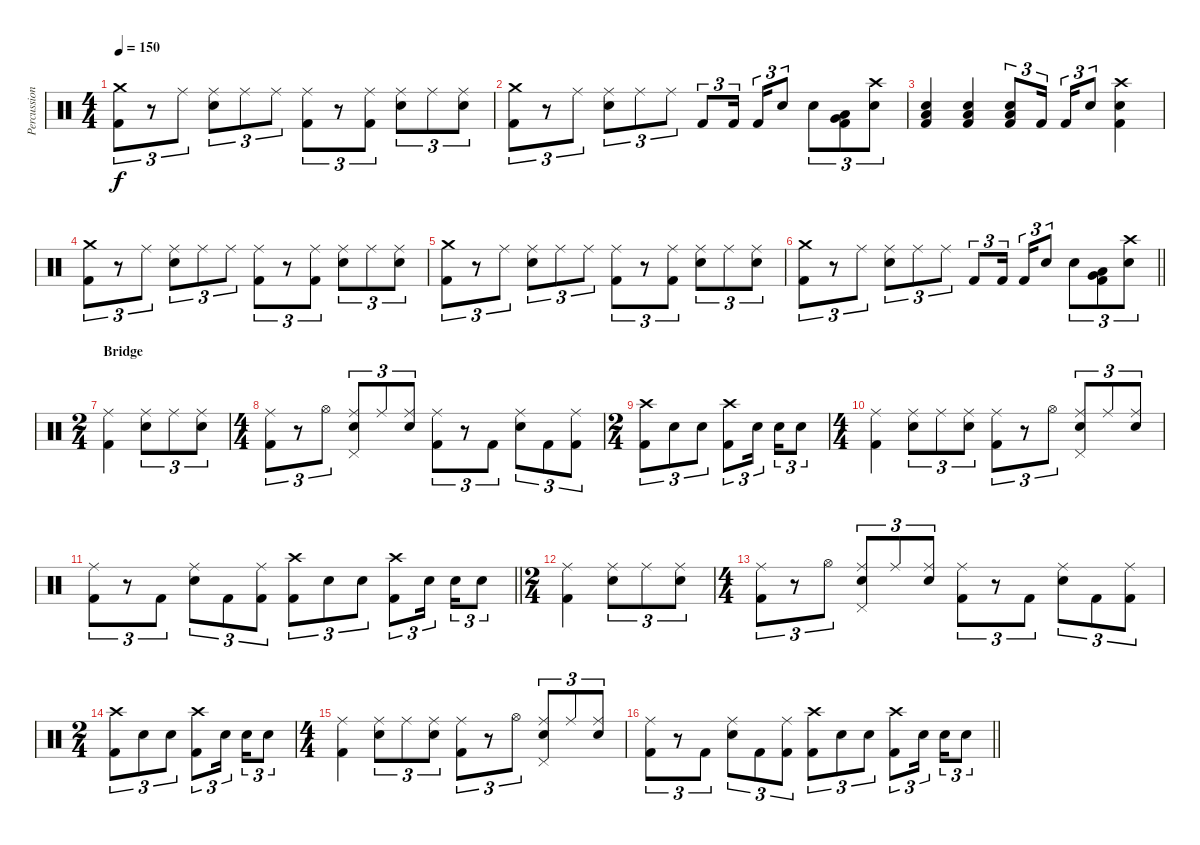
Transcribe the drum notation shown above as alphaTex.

\track ("Percussion" "Percussion") {instrument percussion}
\staff {score}
\articulation defaults
\ts (4 4)
\tempo 150
\clef neutral
\ks c
("Crash medium (hit)" "Kick (hit) 2").8{tu (3 2) dy f} r.8{tu (3 2)} "Ride (middle)".8{tu (3 2)} ("Ride (middle)" "Electric Snare (hit)").8{tu (3 2)} "Ride (middle)".8{tu (3 2)} "Ride (middle)".8{tu (3 2)} ("Ride (middle)" "Kick (hit) 2").8{tu (3 2)} r.8{tu (3 2)} ("Ride (middle)" "Kick (hit) 2").8{tu (3 2)} ("Ride (middle)" "Electric Snare (hit)").8{tu (3 2)} "Ride (middle)".8{tu (3 2)} ("Ride (middle)" "Electric Snare (hit)").8{tu (3 2)} |
("Crash medium (hit)" "Kick (hit) 2").8{tu (3 2)} r.8{tu (3 2)} "Ride (middle)".8{tu (3 2)} ("Ride (middle)" "Electric Snare (hit)").8{tu (3 2)} "Ride (middle)".8{tu (3 2)} "Ride (middle)".8{tu (3 2)} "Kick (hit) 2".8{tu (3 2)} "Kick (hit) 2".16{tu (3 2) beam splitsecondary} "Kick (hit) 2".16{tu (3 2)} "Electric Snare (hit)".8{tu (3 2)} "Electric Snare (hit)".8{tu (3 2)} ("Very Low Tom (hit)" "Low Floor Tom (hit)" "Kick (hit) 2").8{tu (3 2)} ("Crash high (hit)" "Electric Snare (hit)").8{tu (3 2)} |
("Electric Snare (hit)" "Low Floor Tom (hit)" "Kick (hit) 2").4 ("Electric Snare (hit)" "Low Floor Tom (hit)" "Kick (hit) 2").4 ("Electric Snare (hit)" "Low Floor Tom (hit)" "Kick (hit) 2").8{tu (3 2)} "Kick (hit) 2".16{tu (3 2) beam splitsecondary} "Kick (hit) 2".16{tu (3 2)} "Electric Snare (hit)".8{tu (3 2)} ("Crash high (hit)" "Electric Snare (hit)" "Kick (hit) 2").4 |
("Crash medium (hit)" "Kick (hit) 2").8{tu (3 2)} r.8{tu (3 2)} "Ride (middle)".8{tu (3 2)} ("Ride (middle)" "Electric Snare (hit)").8{tu (3 2)} "Ride (middle)".8{tu (3 2)} "Ride (middle)".8{tu (3 2)} ("Ride (middle)" "Kick (hit) 2").8{tu (3 2)} r.8{tu (3 2)} ("Ride (middle)" "Kick (hit) 2").8{tu (3 2)} ("Ride (middle)" "Electric Snare (hit)").8{tu (3 2)} "Ride (middle)".8{tu (3 2)} ("Ride (middle)" "Electric Snare (hit)").8{tu (3 2)} |
("Crash medium (hit)" "Kick (hit) 2").8{tu (3 2)} r.8{tu (3 2)} "Ride (middle)".8{tu (3 2)} ("Ride (middle)" "Electric Snare (hit)").8{tu (3 2)} "Ride (middle)".8{tu (3 2)} "Ride (middle)".8{tu (3 2)} ("Ride (middle)" "Kick (hit) 2").8{tu (3 2)} r.8{tu (3 2)} ("Ride (middle)" "Kick (hit) 2").8{tu (3 2)} ("Ride (middle)" "Electric Snare (hit)").8{tu (3 2)} "Ride (middle)".8{tu (3 2)} ("Ride (middle)" "Electric Snare (hit)").8{tu (3 2)} |
\barLineRight lightlight
("Crash medium (hit)" "Kick (hit) 2").8{tu (3 2)} r.8{tu (3 2)} "Ride (middle)".8{tu (3 2)} ("Ride (middle)" "Electric Snare (hit)").8{tu (3 2)} "Ride (middle)".8{tu (3 2)} "Ride (middle)".8{tu (3 2)} "Kick (hit) 2".8{tu (3 2)} "Kick (hit) 2".16{tu (3 2) beam splitsecondary} "Kick (hit) 2".16{tu (3 2)} "Electric Snare (hit)".8{tu (3 2)} "Electric Snare (hit)".8{tu (3 2)} ("Very Low Tom (hit)" "Low Floor Tom (hit)" "Kick (hit) 2").8{tu (3 2)} ("Crash high (hit)" "Electric Snare (hit)").8{tu (3 2)} |
\ts (2 4)
\section ("" "Bridge")
("Ride (middle)" "Kick (hit) 2").4 ("Ride (middle)" "Electric Snare (hit)").8{tu (3 2)} "Ride (middle)".8{tu (3 2)} ("Ride (middle)" "Electric Snare (hit)").8{tu (3 2)} |
\ts (4 4)
("Ride (middle)" "Kick (hit) 2").8{tu (3 2)} r.8{tu (3 2)} "Hi-Hat (open)".8{tu (3 2)} ("Pedal Hi-Hat (hit)" "Ride (middle)" "Electric Snare (hit)").8{tu (3 2)} "Ride (middle)".8{tu (3 2)} ("Ride (middle)" "Electric Snare (hit)").8{tu (3 2)} ("Ride (middle)" "Kick (hit) 2").8{tu (3 2)} r.8{tu (3 2)} "Kick (hit) 2".8{tu (3 2)} ("Ride (middle)" "Electric Snare (hit)").8{tu (3 2)} "Kick (hit) 2".8{tu (3 2)} ("Ride (middle)" "Kick (hit) 2").8{tu (3 2)} |
\ts (2 4)
("Crash high (hit)" "Kick (hit) 2").8{tu (3 2)} "Electric Snare (hit)".8{tu (3 2)} "Electric Snare (hit)".8{tu (3 2)} ("Crash high (hit)" "Kick (hit) 2").8{tu (3 2)} "Electric Snare (hit)".16{tu (3 2) beam splitsecondary} "Electric Snare (hit)".16{tu (3 2)} "Electric Snare (hit)".8{tu (3 2)} |
\ts (4 4)
("Ride (middle)" "Kick (hit) 2").4 ("Ride (middle)" "Electric Snare (hit)").8{tu (3 2)} "Ride (middle)".8{tu (3 2)} ("Ride (middle)" "Electric Snare (hit)").8{tu (3 2)} ("Ride (middle)" "Kick (hit) 2").8{tu (3 2)} r.8{tu (3 2)} "Hi-Hat (open)".8{tu (3 2)} ("Pedal Hi-Hat (hit)" "Ride (middle)" "Electric Snare (hit)").8{tu (3 2)} "Ride (middle)".8{tu (3 2)} ("Ride (middle)" "Electric Snare (hit)").8{tu (3 2)} |
\barLineRight lightlight
("Ride (middle)" "Kick (hit) 2").8{tu (3 2)} r.8{tu (3 2)} "Kick (hit) 2".8{tu (3 2)} ("Ride (middle)" "Electric Snare (hit)").8{tu (3 2)} "Kick (hit) 2".8{tu (3 2)} ("Ride (middle)" "Kick (hit) 2").8{tu (3 2)} ("Crash high (hit)" "Kick (hit) 2").8{tu (3 2)} "Electric Snare (hit)".8{tu (3 2)} "Electric Snare (hit)".8{tu (3 2)} ("Crash high (hit)" "Kick (hit) 2").8{tu (3 2)} "Electric Snare (hit)".16{tu (3 2) beam splitsecondary} "Electric Snare (hit)".16{tu (3 2)} "Electric Snare (hit)".8{tu (3 2)} |
\ts (2 4)
("Ride (middle)" "Kick (hit) 2").4 ("Ride (middle)" "Electric Snare (hit)").8{tu (3 2)} "Ride (middle)".8{tu (3 2)} ("Ride (middle)" "Electric Snare (hit)").8{tu (3 2)} |
\ts (4 4)
("Ride (middle)" "Kick (hit) 2").8{tu (3 2)} r.8{tu (3 2)} "Hi-Hat (open)".8{tu (3 2)} ("Pedal Hi-Hat (hit)" "Ride (middle)" "Electric Snare (hit)").8{tu (3 2)} "Ride (middle)".8{tu (3 2)} ("Ride (middle)" "Electric Snare (hit)").8{tu (3 2)} ("Ride (middle)" "Kick (hit) 2").8{tu (3 2)} r.8{tu (3 2)} "Kick (hit) 2".8{tu (3 2)} ("Ride (middle)" "Electric Snare (hit)").8{tu (3 2)} "Kick (hit) 2".8{tu (3 2)} ("Ride (middle)" "Kick (hit) 2").8{tu (3 2)} |
\ts (2 4)
("Crash high (hit)" "Kick (hit) 2").8{tu (3 2)} "Electric Snare (hit)".8{tu (3 2)} "Electric Snare (hit)".8{tu (3 2)} ("Crash high (hit)" "Kick (hit) 2").8{tu (3 2)} "Electric Snare (hit)".16{tu (3 2) beam splitsecondary} "Electric Snare (hit)".16{tu (3 2)} "Electric Snare (hit)".8{tu (3 2)} |
\ts (4 4)
("Ride (middle)" "Kick (hit) 2").4 ("Ride (middle)" "Electric Snare (hit)").8{tu (3 2)} "Ride (middle)".8{tu (3 2)} ("Ride (middle)" "Electric Snare (hit)").8{tu (3 2)} ("Ride (middle)" "Kick (hit) 2").8{tu (3 2)} r.8{tu (3 2)} "Hi-Hat (open)".8{tu (3 2)} ("Pedal Hi-Hat (hit)" "Ride (middle)" "Electric Snare (hit)").8{tu (3 2)} "Ride (middle)".8{tu (3 2)} ("Ride (middle)" "Electric Snare (hit)").8{tu (3 2)} |
\barLineRight lightlight
("Ride (middle)" "Kick (hit) 2").8{tu (3 2)} r.8{tu (3 2)} "Kick (hit) 2".8{tu (3 2)} ("Ride (middle)" "Electric Snare (hit)").8{tu (3 2)} "Kick (hit) 2".8{tu (3 2)} ("Ride (middle)" "Kick (hit) 2").8{tu (3 2)} ("Crash high (hit)" "Kick (hit) 2").8{tu (3 2)} "Electric Snare (hit)".8{tu (3 2)} "Electric Snare (hit)".8{tu (3 2)} ("Crash high (hit)" "Kick (hit) 2").8{tu (3 2)} "Electric Snare (hit)".16{tu (3 2) beam splitsecondary} "Electric Snare (hit)".16{tu (3 2)} "Electric Snare (hit)".8{tu (3 2)}
